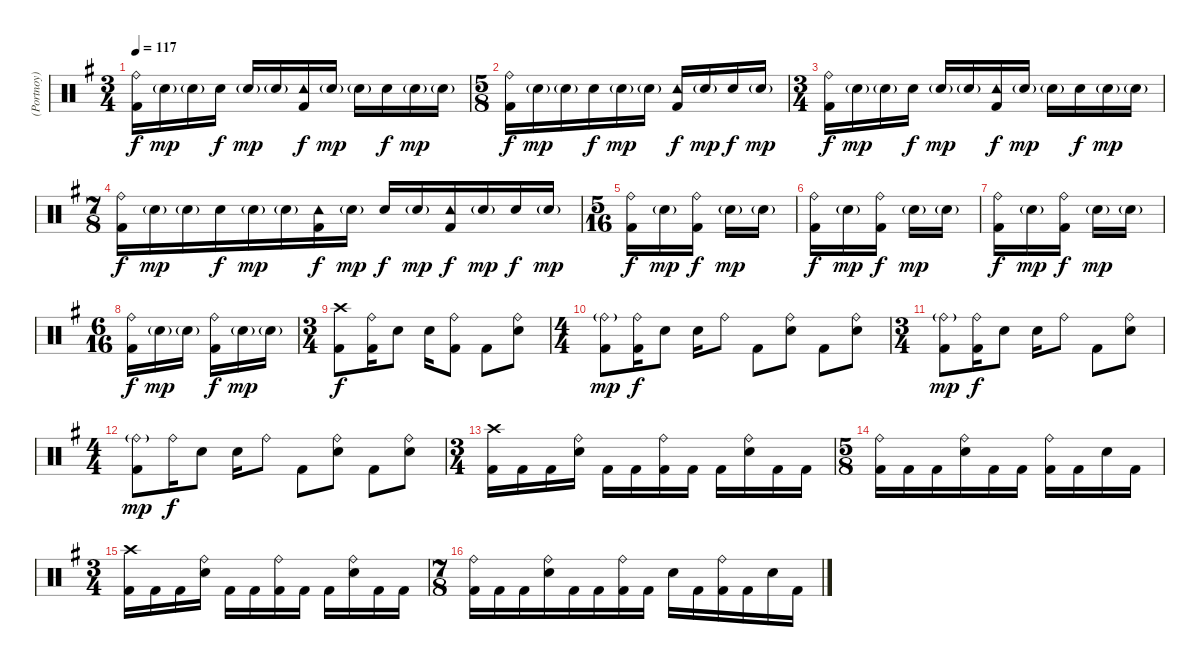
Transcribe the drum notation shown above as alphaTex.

\track ("(Portnoy) Drums" "(Portnoy) ") {instrument percussion}
\staff {score}
\articulation defaults
\ts (3 4)
\tempo 117
\clef neutral
\ks eminor
("Ride (bell)" "Kick (hit) 2").16{dy f} "Snare (hit) 2"{g}.16{dy mp} "Snare (hit) 2"{g}.16 "Snare (hit) 2".16{dy f} "Snare (hit) 2"{g}.16{dy mp} "Snare (hit) 2"{g}.16 ("Tambourine (hit)" "Kick (hit) 2").16{dy f} "Snare (hit) 2"{g}.16{dy mp} "Snare (hit) 2"{g}.16 "Snare (hit) 2".16{dy f} "Snare (hit) 2"{g}.16{dy mp} "Snare (hit) 2"{g}.16 |
\ts (5 8)
("Ride (bell)" "Kick (hit) 2").16{dy f} "Snare (hit) 2"{g}.16{dy mp} "Snare (hit) 2"{g}.16 "Snare (hit) 2".16{dy f} "Snare (hit) 2"{g}.16{dy mp} "Snare (hit) 2"{g}.16 ("Tambourine (hit)" "Kick (hit) 2").16{dy f} "Snare (hit) 2"{g}.16{dy mp} "Snare (hit) 2".16{dy f} "Snare (hit) 2"{g}.16{dy mp} |
\ts (3 4)
("Ride (bell)" "Kick (hit) 2").16{dy f} "Snare (hit) 2"{g}.16{dy mp} "Snare (hit) 2"{g}.16 "Snare (hit) 2".16{dy f} "Snare (hit) 2"{g}.16{dy mp} "Snare (hit) 2"{g}.16 ("Tambourine (hit)" "Kick (hit) 2").16{dy f} "Snare (hit) 2"{g}.16{dy mp} "Snare (hit) 2"{g}.16 "Snare (hit) 2".16{dy f} "Snare (hit) 2"{g}.16{dy mp} "Snare (hit) 2"{g}.16 |
\ts (7 8)
("Ride (bell)" "Kick (hit) 2").16{dy f} "Snare (hit) 2"{g}.16{dy mp} "Snare (hit) 2"{g}.16 "Snare (hit) 2".16{dy f} "Snare (hit) 2"{g}.16{dy mp} "Snare (hit) 2"{g}.16 ("Tambourine (hit)" "Kick (hit) 2").16{dy f} "Snare (hit) 2"{g}.16{dy mp} "Snare (hit) 2".16{dy f} "Snare (hit) 2"{g}.16{dy mp} ("Tambourine (hit)" "Kick (hit) 2").16{dy f} "Snare (hit) 2"{g}.16{dy mp} "Snare (hit) 2".16{dy f} "Snare (hit) 2"{g}.16{dy mp} |
\ts (5 16)
("Ride (bell)" "Kick (hit) 2").16{dy f} "Snare (hit) 2"{g}.16{dy mp} ("Ride (bell)" "Kick (hit) 2").16{dy f} "Snare (hit) 2"{g}.16{dy mp} "Snare (hit) 2"{g}.16 |
("Ride (bell)" "Kick (hit) 2").16{dy f} "Snare (hit) 2"{g}.16{dy mp} ("Ride (bell)" "Kick (hit) 2").16{dy f} "Snare (hit) 2"{g}.16{dy mp} "Snare (hit) 2"{g}.16 |
("Ride (bell)" "Kick (hit) 2").16{dy f} "Snare (hit) 2"{g}.16{dy mp} ("Ride (bell)" "Kick (hit) 2").16{dy f} "Snare (hit) 2"{g}.16{dy mp} "Snare (hit) 2"{g}.16 |
\ts (6 16)
("Ride (bell)" "Kick (hit) 2").16{dy f} "Snare (hit) 2"{g}.16{dy mp} "Snare (hit) 2"{g}.16 ("Ride (bell)" "Kick (hit) 2").16{dy f} "Snare (hit) 2"{g}.16{dy mp} "Snare (hit) 2"{g}.16 |
\ts (3 4)
("Crash high (hit)" "Kick (hit) 2").8{dy f} ("Ride (bell)" "Kick (hit) 2").16 "Snare (hit) 2".8 "Snare (hit) 2".16 ("Ride (bell)" "Kick (hit) 2").8 "Kick (hit) 2".8 ("Ride (bell)" "Snare (hit) 2").8 |
\ts (4 4)
("Ride (bell)"{g} "Kick (hit) 2").8{dy mp} ("Ride (bell)" "Kick (hit) 2").16{dy f} "Snare (hit) 2".8 "Snare (hit) 2".16 "Ride (bell)".8 "Kick (hit) 2".8 ("Ride (bell)" "Snare (hit) 2").8 "Kick (hit) 2".8 ("Ride (bell)" "Snare (hit) 2").8 |
\ts (3 4)
("Ride (bell)"{g} "Kick (hit) 2").8{dy mp} ("Ride (bell)" "Kick (hit) 2").16{dy f} "Snare (hit) 2".8 "Snare (hit) 2".16 "Ride (bell)".8 "Kick (hit) 2".8 ("Ride (bell)" "Snare (hit) 2").8 |
\ts (4 4)
("Ride (bell)"{g} "Kick (hit) 2").8{dy mp} "Ride (bell)".16{dy f} "Snare (hit) 2".8 "Snare (hit) 2".16 "Ride (bell)".8 "Kick (hit) 2".8 ("Ride (bell)" "Snare (hit) 2").8 "Kick (hit) 2".8 ("Ride (bell)" "Snare (hit) 2").8 |
\ts (3 4)
("Crash high (hit)" "Kick (hit) 2").16 "Kick (hit) 2".16 "Kick (hit) 2".16 ("Ride (bell)" "Snare (hit) 2").16 "Kick (hit) 2".16 "Kick (hit) 2".16 ("Ride (bell)" "Kick (hit) 2").16 "Kick (hit) 2".16 "Kick (hit) 2".16 ("Ride (bell)" "Snare (hit) 2").16 "Kick (hit) 2".16 "Kick (hit) 2".16 |
\ts (5 8)
("Ride (bell)" "Kick (hit) 2").16 "Kick (hit) 2".16 "Kick (hit) 2".16 ("Ride (bell)" "Snare (hit) 2").16 "Kick (hit) 2".16 "Kick (hit) 2".16 ("Ride (bell)" "Kick (hit) 2").16 "Kick (hit) 2".16 "Snare (hit) 2".16 "Kick (hit) 2".16 |
\ts (3 4)
("Crash high (hit)" "Kick (hit) 2").16 "Kick (hit) 2".16 "Kick (hit) 2".16 ("Ride (bell)" "Snare (hit) 2").16 "Kick (hit) 2".16 "Kick (hit) 2".16 ("Ride (bell)" "Kick (hit) 2").16 "Kick (hit) 2".16 "Kick (hit) 2".16 ("Ride (bell)" "Snare (hit) 2").16 "Kick (hit) 2".16 "Kick (hit) 2".16 |
\ts (7 8)
("Ride (bell)" "Kick (hit) 2").16 "Kick (hit) 2".16 "Kick (hit) 2".16 ("Ride (bell)" "Snare (hit) 2").16 "Kick (hit) 2".16 "Kick (hit) 2".16 ("Ride (bell)" "Kick (hit) 2").16 "Kick (hit) 2".16 "Snare (hit) 2".16 "Kick (hit) 2".16 ("Ride (bell)" "Kick (hit) 2").16 "Kick (hit) 2".16 "Snare (hit) 2".16 "Kick (hit) 2".16
